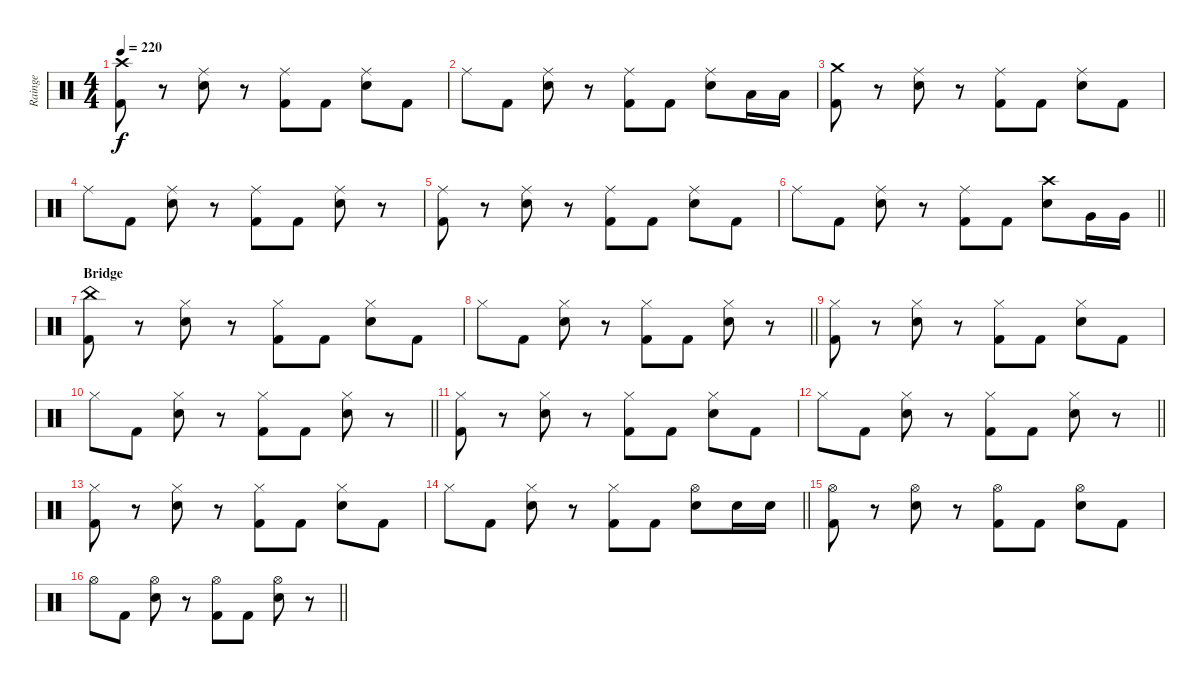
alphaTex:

\track ("Rainge" "Rainge") {instrument percussion}
\staff {score}
\articulation defaults
\ts (4 4)
\tempo 220
\clef neutral
\ks c
("Crash high (hit)" "Kick (hit) 2").8{dy f} r.8 ("Ride (middle)" "Electric Snare (hit)").8 r.8 ("Ride (middle)" "Kick (hit) 2").8 "Kick (hit) 2".8 ("Ride (middle)" "Electric Snare (hit)").8 "Kick (hit) 2".8 |
"Ride (middle)".8 "Kick (hit) 2".8 ("Ride (middle)" "Electric Snare (hit)").8 r.8 ("Ride (middle)" "Kick (hit) 2").8 "Kick (hit) 2".8 ("Ride (middle)" "Electric Snare (hit)").8 "Low Tom (hit)".16 "Low Tom (hit)".16 |
("Crash medium (hit)" "Kick (hit) 2").8 r.8 ("Ride (middle)" "Electric Snare (hit)").8 r.8 ("Ride (middle)" "Kick (hit) 2").8 "Kick (hit) 2".8 ("Ride (middle)" "Electric Snare (hit)").8 "Kick (hit) 2".8 |
"Ride (middle)".8 "Kick (hit) 2".8 ("Ride (middle)" "Electric Snare (hit)").8 r.8 ("Ride (middle)" "Kick (hit) 2").8 "Kick (hit) 2".8 ("Ride (middle)" "Electric Snare (hit)").8 r.8 |
("Ride (middle)" "Kick (hit) 2").8 r.8 ("Ride (middle)" "Electric Snare (hit)").8 r.8 ("Ride (middle)" "Kick (hit) 2").8 "Kick (hit) 2".8 ("Ride (middle)" "Electric Snare (hit)").8 "Kick (hit) 2".8 |
\barLineRight lightlight "Ride (middle)".8 "Kick (hit) 2".8
("Ride (middle)" "Electric Snare (hit)").8 r.8 ("Ride (middle)" "Kick (hit) 2").8 "Kick (hit) 2".8 ("Crash high (hit)" "Electric Snare (hit)").8 "Very Low Tom (hit)".16 "Very Low Tom (hit)".16 |
\section ("" "Bridge")
("China (hit)" "Kick (hit) 2").8 r.8 ("Hi-Hat (closed)" "Electric Snare (hit)").8 r.8 ("Hi-Hat (closed)" "Kick (hit) 2").8 "Kick (hit) 2".8 ("Hi-Hat (closed)" "Electric Snare (hit)").8 "Kick (hit) 2".8 |
\barLineRight lightlight "Hi-Hat (closed)".8 "Kick (hit) 2".8
("Hi-Hat (closed)" "Electric Snare (hit)").8 r.8 ("Hi-Hat (closed)" "Kick (hit) 2").8 "Kick (hit) 2".8 ("Hi-Hat (closed)" "Electric Snare (hit)").8 r.8 |
("Hi-Hat (closed)" "Kick (hit) 2").8 r.8 ("Hi-Hat (closed)" "Electric Snare (hit)").8 r.8 ("Hi-Hat (closed)" "Kick (hit) 2").8 "Kick (hit) 2".8 ("Hi-Hat (closed)" "Electric Snare (hit)").8 "Kick (hit) 2".8 |
\barLineRight lightlight "Hi-Hat (closed)".8 "Kick (hit) 2".8
("Hi-Hat (closed)" "Electric Snare (hit)").8 r.8 ("Hi-Hat (closed)" "Kick (hit) 2").8 "Kick (hit) 2".8 ("Hi-Hat (closed)" "Electric Snare (hit)").8 r.8 |
("Hi-Hat (closed)" "Kick (hit) 2").8 r.8 ("Hi-Hat (closed)" "Electric Snare (hit)").8 r.8 ("Hi-Hat (closed)" "Kick (hit) 2").8 "Kick (hit) 2".8 ("Hi-Hat (closed)" "Electric Snare (hit)").8 "Kick (hit) 2".8 |
\barLineRight lightlight "Hi-Hat (closed)".8 "Kick (hit) 2".8
("Hi-Hat (closed)" "Electric Snare (hit)").8 r.8 ("Hi-Hat (closed)" "Kick (hit) 2").8 "Kick (hit) 2".8 ("Hi-Hat (closed)" "Electric Snare (hit)").8 r.8 |
("Hi-Hat (closed)" "Kick (hit) 2").8 r.8 ("Hi-Hat (closed)" "Electric Snare (hit)").8 r.8 ("Hi-Hat (closed)" "Kick (hit) 2").8 "Kick (hit) 2".8 ("Hi-Hat (closed)" "Electric Snare (hit)").8 "Kick (hit) 2".8 |
\barLineRight lightlight "Hi-Hat (closed)".8 "Kick (hit) 2".8
("Hi-Hat (closed)" "Electric Snare (hit)").8 r.8 ("Hi-Hat (closed)" "Kick (hit) 2").8 "Kick (hit) 2".8 ("Hi-Hat (open)" "Electric Snare (hit)").8 "Electric Snare (hit)".16 "Electric Snare (hit)".16 |
("Hi-Hat (open)" "Kick (hit) 2").8 r.8 ("Hi-Hat (open)" "Electric Snare (hit)").8 r.8 ("Hi-Hat (open)" "Kick (hit) 2").8 "Kick (hit) 2".8 ("Hi-Hat (open)" "Electric Snare (hit)").8 "Kick (hit) 2".8 |
\barLineRight lightlight "Hi-Hat (open)".8 "Kick (hit) 2".8
("Hi-Hat (open)" "Electric Snare (hit)").8 r.8 ("Hi-Hat (open)" "Kick (hit) 2").8 "Kick (hit) 2".8 ("Hi-Hat (open)" "Electric Snare (hit)").8 r.8
